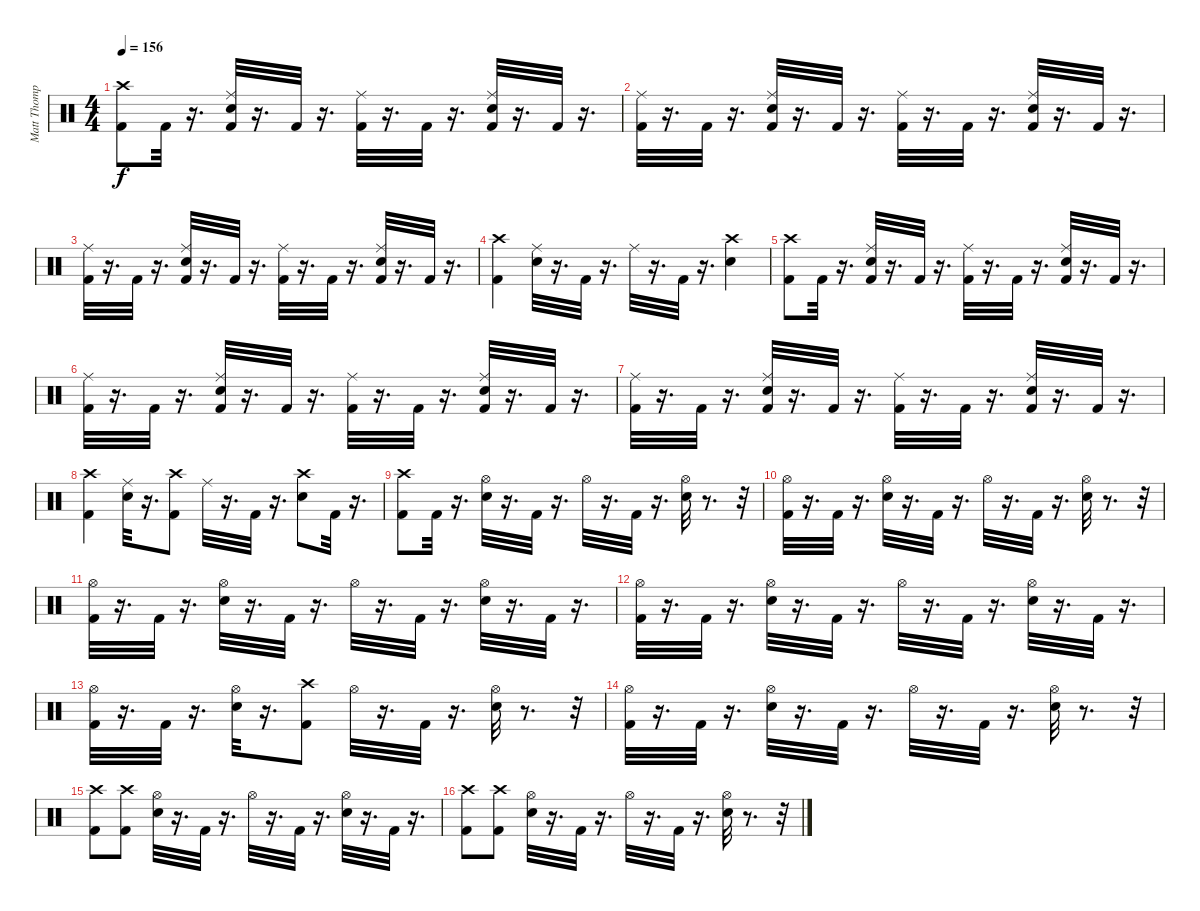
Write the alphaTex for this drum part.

\track ("Matt Thompson" "Matt Thomp") {instrument percussion}
\staff {score}
\articulation defaults
\ts (4 4)
\tempo 156
\clef neutral
\ks c
("Crash high (hit)" "Kick (hit) 2").8{dy f} "Kick (hit) 2".32 r.16{d} ("Ride (middle)" "Snare (hit) 2" "Kick (hit) 2").32 r.16{d} "Kick (hit) 2".32 r.16{d} ("Ride (middle)" "Kick (hit) 2").32 r.16{d} "Kick (hit) 2".32 r.16{d} ("Ride (middle)" "Snare (hit) 2" "Kick (hit) 2").32 r.16{d} "Kick (hit) 2".32 r.16{d} |
("Ride (middle)" "Kick (hit) 2").32 r.16{d} "Kick (hit) 2".32 r.16{d} ("Ride (middle)" "Snare (hit) 2" "Kick (hit) 2").32 r.16{d} "Kick (hit) 2".32 r.16{d} ("Ride (middle)" "Kick (hit) 2").32 r.16{d} "Kick (hit) 2".32 r.16{d} ("Ride (middle)" "Snare (hit) 2" "Kick (hit) 2").32 r.16{d} "Kick (hit) 2".32 r.16{d} |
("Ride (middle)" "Kick (hit) 2").32 r.16{d} "Kick (hit) 2".32 r.16{d} ("Snare (hit) 2" "Ride (middle)" "Kick (hit) 2").32 r.16{d} "Kick (hit) 2".32 r.16{d} ("Ride (middle)" "Kick (hit) 2").32 r.16{d} "Kick (hit) 2".32 r.16{d} ("Ride (middle)" "Snare (hit) 2" "Kick (hit) 2").32 r.16{d} "Kick (hit) 2".32 r.16{d} |
("Crash high (hit)" "Kick (hit) 2").4 ("Ride (middle)" "Snare (hit) 2").32 r.16{d} "Kick (hit) 2".32 r.16{d} "Ride (middle)".32 r.16{d} "Kick (hit) 2".32 r.16{d} ("Crash high (hit)" "Snare (hit) 2").4 |
("Crash high (hit)" "Kick (hit) 2").8 "Kick (hit) 2".32 r.16{d} ("Ride (middle)" "Snare (hit) 2" "Kick (hit) 2").32 r.16{d} "Kick (hit) 2".32 r.16{d} ("Ride (middle)" "Kick (hit) 2").32 r.16{d} "Kick (hit) 2".32 r.16{d} ("Ride (middle)" "Snare (hit) 2" "Kick (hit) 2").32 r.16{d} "Kick (hit) 2".32 r.16{d} |
("Ride (middle)" "Kick (hit) 2").32 r.16{d} "Kick (hit) 2".32 r.16{d} ("Ride (middle)" "Snare (hit) 2" "Kick (hit) 2").32 r.16{d} "Kick (hit) 2".32 r.16{d} ("Ride (middle)" "Kick (hit) 2").32 r.16{d} "Kick (hit) 2".32 r.16{d} ("Ride (middle)" "Snare (hit) 2" "Kick (hit) 2").32 r.16{d} "Kick (hit) 2".32 r.16{d} |
("Ride (middle)" "Kick (hit) 2").32 r.16{d} "Kick (hit) 2".32 r.16{d} ("Ride (middle)" "Snare (hit) 2" "Kick (hit) 2").32 r.16{d} "Kick (hit) 2".32 r.16{d} ("Ride (middle)" "Kick (hit) 2").32 r.16{d} "Kick (hit) 2".32 r.16{d} ("Ride (middle)" "Snare (hit) 2" "Kick (hit) 2").32 r.16{d} "Kick (hit) 2".32 r.16{d} |
("Crash high (hit)" "Kick (hit) 2").4 ("Ride (middle)" "Snare (hit) 2").32 r.16{d} ("Crash high (hit)" "Kick (hit) 2").8 "Ride (middle)".32 r.16{d} "Kick (hit) 2".32 r.16{d} ("Crash high (hit)" "Snare (hit) 2").8 "Kick (hit) 2".32 r.16{d} |
("Crash high (hit)" "Kick (hit) 2").8 "Kick (hit) 2".32 r.16{d} ("Hi-Hat (open)" "Snare (hit) 2").32 r.16{d} "Kick (hit) 2".32 r.16{d} "Hi-Hat (open)".32 r.16{d} "Kick (hit) 2".32 r.16{d} ("Hi-Hat (open)" "Snare (hit) 2").32 r.8{d} r.32 |
("Hi-Hat (open)" "Kick (hit) 2").32 r.16{d} "Kick (hit) 2".32 r.16{d} ("Hi-Hat (open)" "Snare (hit) 2").32 r.16{d} "Kick (hit) 2".32 r.16{d} "Hi-Hat (open)".32 r.16{d} "Kick (hit) 2".32 r.16{d} ("Hi-Hat (open)" "Snare (hit) 2").32 r.8{d} r.32 |
("Hi-Hat (open)" "Kick (hit) 2").32 r.16{d} "Kick (hit) 2".32 r.16{d} ("Hi-Hat (open)" "Snare (hit) 2").32 r.16{d} "Kick (hit) 2".32 r.16{d} "Hi-Hat (open)".32 r.16{d} "Kick (hit) 2".32 r.16{d} ("Hi-Hat (open)" "Snare (hit) 2").32 r.16{d} "Kick (hit) 2".32 r.16{d} |
("Hi-Hat (open)" "Kick (hit) 2").32 r.16{d} "Kick (hit) 2".32 r.16{d} ("Hi-Hat (open)" "Snare (hit) 2").32 r.16{d} "Kick (hit) 2".32 r.16{d} "Hi-Hat (open)".32 r.16{d} "Kick (hit) 2".32 r.16{d} ("Hi-Hat (open)" "Snare (hit) 2").32 r.16{d} "Kick (hit) 2".32 r.16{d} |
("Hi-Hat (open)" "Kick (hit) 2").32 r.16{d} "Kick (hit) 2".32 r.16{d} ("Hi-Hat (open)" "Snare (hit) 2").32 r.16{d} ("Crash high (hit)" "Kick (hit) 2").8 "Hi-Hat (open)".32 r.16{d} "Kick (hit) 2".32 r.16{d} ("Hi-Hat (open)" "Snare (hit) 2").32 r.8{d} r.32 |
("Hi-Hat (open)" "Kick (hit) 2").32 r.16{d} "Kick (hit) 2".32 r.16{d} ("Hi-Hat (open)" "Snare (hit) 2").32 r.16{d} "Kick (hit) 2".32 r.16{d} "Hi-Hat (open)".32 r.16{d} "Kick (hit) 2".32 r.16{d} ("Hi-Hat (open)" "Snare (hit) 2").32 r.8{d} r.32 |
("Crash high (hit)" "Kick (hit) 2").8 ("Crash high (hit)" "Kick (hit) 2").8 ("Hi-Hat (open)" "Snare (hit) 2").32 r.16{d} "Kick (hit) 2".32 r.16{d} "Hi-Hat (open)".32 r.16{d} "Kick (hit) 2".32 r.16{d} ("Hi-Hat (open)" "Snare (hit) 2").32 r.16{d} "Kick (hit) 2".32 r.16{d} |
("Crash high (hit)" "Kick (hit) 2").8 ("Crash high (hit)" "Kick (hit) 2").8 ("Hi-Hat (open)" "Snare (hit) 2").32 r.16{d} "Kick (hit) 2".32 r.16{d} "Hi-Hat (open)".32 r.16{d} "Kick (hit) 2".32 r.16{d} ("Hi-Hat (open)" "Snare (hit) 2").32 r.8{d} r.32
